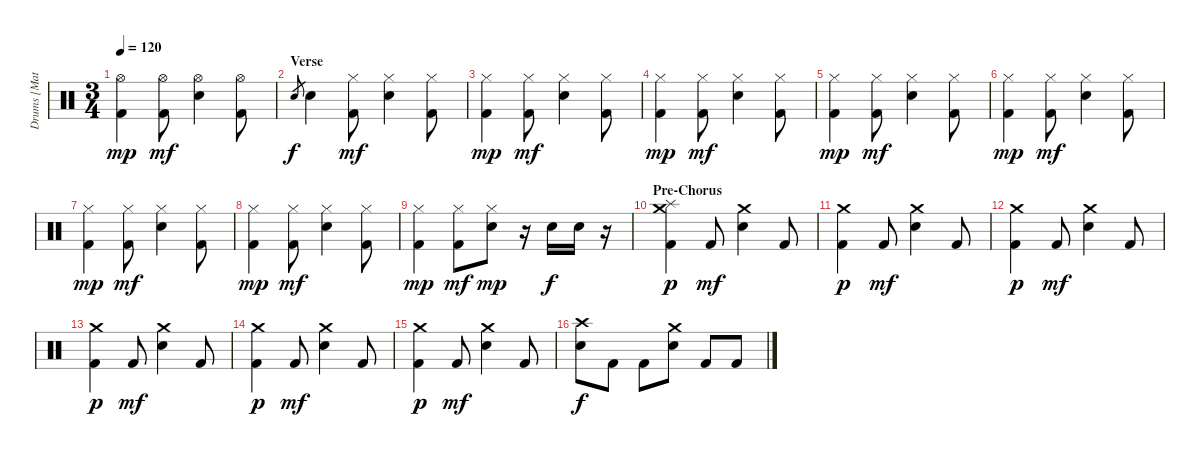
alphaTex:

\track ("Drums [Matt]" "Drums [Mat") {instrument percussion}
\staff {score}
\articulation defaults
\ts (3 4)
\tempo 120
\clef neutral
\ks c
("Hi-Hat (open)" "Kick (hit) 2").4{dy mp} ("Hi-Hat (open)" "Kick (hit) 2").8{dy mf} ("Hi-Hat (open)" "Snare (hit) 2").4 ("Hi-Hat (open)" "Kick (hit) 2").8 |
\section ("" "Verse")
"Snare (hit) 2".8{gr dy f} "Snare (hit) 2".4 ("Hi-Hat (closed)" "Kick (hit) 2").8{dy mf} ("Hi-Hat (closed)" "Snare (hit) 2").4 ("Hi-Hat (closed)" "Kick (hit) 2").8 |
("Hi-Hat (closed)" "Kick (hit) 2").4{dy mp} ("Hi-Hat (closed)" "Kick (hit) 2").8{dy mf} ("Hi-Hat (closed)" "Snare (hit) 2").4 ("Hi-Hat (closed)" "Kick (hit) 2").8 |
("Hi-Hat (closed)" "Kick (hit) 2").4{dy mp} ("Hi-Hat (closed)" "Kick (hit) 2").8{dy mf} ("Hi-Hat (closed)" "Snare (hit) 2").4 ("Hi-Hat (closed)" "Kick (hit) 2").8 |
("Hi-Hat (closed)" "Kick (hit) 2").4{dy mp} ("Hi-Hat (closed)" "Kick (hit) 2").8{dy mf} ("Hi-Hat (closed)" "Snare (hit) 2").4 ("Hi-Hat (closed)" "Kick (hit) 2").8 |
("Hi-Hat (closed)" "Kick (hit) 2").4{dy mp} ("Hi-Hat (closed)" "Kick (hit) 2").8{dy mf} ("Hi-Hat (closed)" "Snare (hit) 2").4 ("Hi-Hat (closed)" "Kick (hit) 2").8 |
("Hi-Hat (closed)" "Kick (hit) 2").4{dy mp} ("Hi-Hat (closed)" "Kick (hit) 2").8{dy mf} ("Hi-Hat (closed)" "Snare (hit) 2").4 ("Hi-Hat (closed)" "Kick (hit) 2").8 |
("Hi-Hat (closed)" "Kick (hit) 2").4{dy mp} ("Hi-Hat (closed)" "Kick (hit) 2").8{dy mf} ("Hi-Hat (closed)" "Snare (hit) 2").4 ("Hi-Hat (closed)" "Kick (hit) 2").8 |
("Hi-Hat (closed)" "Kick (hit) 2").4{dy mp} ("Hi-Hat (closed)" "Kick (hit) 2").8{dy mf} ("Hi-Hat (closed)" "Snare (hit) 2").8{dy mp} r.16 "Snare (hit) 2".16{dy f} "Snare (hit) 2".16 r.16 |
\section ("" "Pre-Chorus")
("Splash (hit)" "Crash medium (hit)" "Kick (hit) 2").4{dy p} "Kick (hit) 2".8{dy mf} ("Crash medium (hit)" "Snare (hit) 2").4 "Kick (hit) 2".8 |
("Crash medium (hit)" "Kick (hit) 2").4{dy p} "Kick (hit) 2".8{dy mf} ("Crash medium (hit)" "Snare (hit) 2").4 "Kick (hit) 2".8 |
("Crash medium (hit)" "Kick (hit) 2").4{dy p} "Kick (hit) 2".8{dy mf} ("Crash medium (hit)" "Snare (hit) 2").4 "Kick (hit) 2".8 |
("Crash medium (hit)" "Kick (hit) 2").4{dy p} "Kick (hit) 2".8{dy mf} ("Crash medium (hit)" "Snare (hit) 2").4 "Kick (hit) 2".8 |
("Crash medium (hit)" "Kick (hit) 2").4{dy p} "Kick (hit) 2".8{dy mf} ("Crash medium (hit)" "Snare (hit) 2").4 "Kick (hit) 2".8 |
("Crash medium (hit)" "Kick (hit) 2").4{dy p} "Kick (hit) 2".8{dy mf} ("Crash medium (hit)" "Snare (hit) 2").4 "Kick (hit) 2".8 |
("Crash high (hit)" "Snare (hit) 2").8{dy f} "Kick (hit) 2".8 "Kick (hit) 2".8 ("Crash medium (hit)" "Snare (hit) 2").8 "Kick (hit) 2".8 "Kick (hit) 2".8
